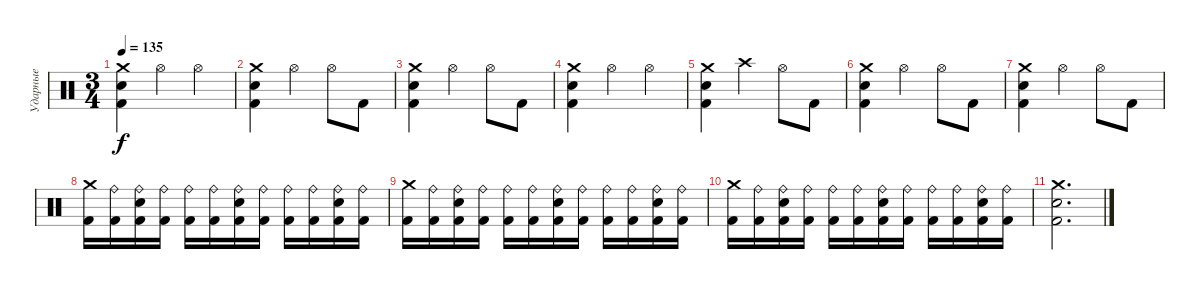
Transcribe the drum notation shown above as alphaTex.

\track ("Ударные" "Ударные") {instrument percussion}
\staff {score}
\articulation defaults
\ts (3 4)
\tempo 135
\clef neutral
\ks c
("Crash medium (hit)" "Electric Snare (hit)" "Kick (hit) 2").4{dy f} "Hi-Hat (open)".4 "Hi-Hat (open)".4 |
("Crash medium (hit)" "Electric Snare (hit)" "Kick (hit) 2").4 "Hi-Hat (open)".4 "Hi-Hat (open)".8 "Kick (hit) 2".8 |
("Crash medium (hit)" "Electric Snare (hit)" "Kick (hit) 2").4 "Hi-Hat (open)".4 "Hi-Hat (open)".8 "Kick (hit) 2".8 |
("Crash medium (hit)" "Electric Snare (hit)" "Kick (hit) 2").4 "Hi-Hat (open)".4 "Hi-Hat (open)".4 |
("Crash medium (hit)" "Electric Snare (hit)" "Kick (hit) 2").4 "Crash high (hit)".4 "Hi-Hat (open)".8 "Kick (hit) 2".8 |
("Crash medium (hit)" "Electric Snare (hit)" "Kick (hit) 2").4 "Hi-Hat (open)".4 "Hi-Hat (open)".8 "Kick (hit) 2".8 |
("Crash medium (hit)" "Electric Snare (hit)" "Kick (hit) 2").4 "Hi-Hat (open)".4 "Hi-Hat (open)".8 "Kick (hit) 2".8 |
("Crash medium (hit)" "Kick (hit) 2").16 ("Ride (bell)" "Kick (hit) 2").16 ("Ride (bell)" "Electric Snare (hit)" "Kick (hit) 2").16 ("Ride (bell)" "Kick (hit) 2").16 ("Ride (bell)" "Kick (hit) 2").16 ("Ride (bell)" "Kick (hit) 2").16 ("Ride (bell)" "Electric Snare (hit)" "Kick (hit) 2").16 ("Ride (bell)" "Kick (hit) 2").16 ("Ride (bell)" "Kick (hit) 2").16 ("Ride (bell)" "Kick (hit) 2").16 ("Ride (bell)" "Electric Snare (hit)" "Kick (hit) 2").16 ("Ride (bell)" "Kick (hit) 2").16 |
("Crash medium (hit)" "Kick (hit) 2").16 ("Ride (bell)" "Kick (hit) 2").16 ("Ride (bell)" "Electric Snare (hit)" "Kick (hit) 2").16 ("Ride (bell)" "Kick (hit) 2").16 ("Ride (bell)" "Kick (hit) 2").16 ("Ride (bell)" "Kick (hit) 2").16 ("Ride (bell)" "Electric Snare (hit)" "Kick (hit) 2").16 ("Ride (bell)" "Kick (hit) 2").16 ("Ride (bell)" "Kick (hit) 2").16 ("Ride (bell)" "Kick (hit) 2").16 ("Ride (bell)" "Electric Snare (hit)" "Kick (hit) 2").16 ("Ride (bell)" "Kick (hit) 2").16 |
("Crash medium (hit)" "Kick (hit) 2").16 ("Ride (bell)" "Kick (hit) 2").16 ("Ride (bell)" "Electric Snare (hit)" "Kick (hit) 2").16 ("Ride (bell)" "Kick (hit) 2").16 ("Ride (bell)" "Kick (hit) 2").16 ("Ride (bell)" "Kick (hit) 2").16 ("Ride (bell)" "Electric Snare (hit)" "Kick (hit) 2").16 ("Ride (bell)" "Kick (hit) 2").16 ("Ride (bell)" "Kick (hit) 2").16 ("Ride (bell)" "Kick (hit) 2").16 ("Ride (bell)" "Electric Snare (hit)" "Kick (hit) 2").16 ("Ride (bell)" "Kick (hit) 2").16 |
("Crash medium (hit)" "Electric Snare (hit)" "Kick (hit) 2").2{d}
